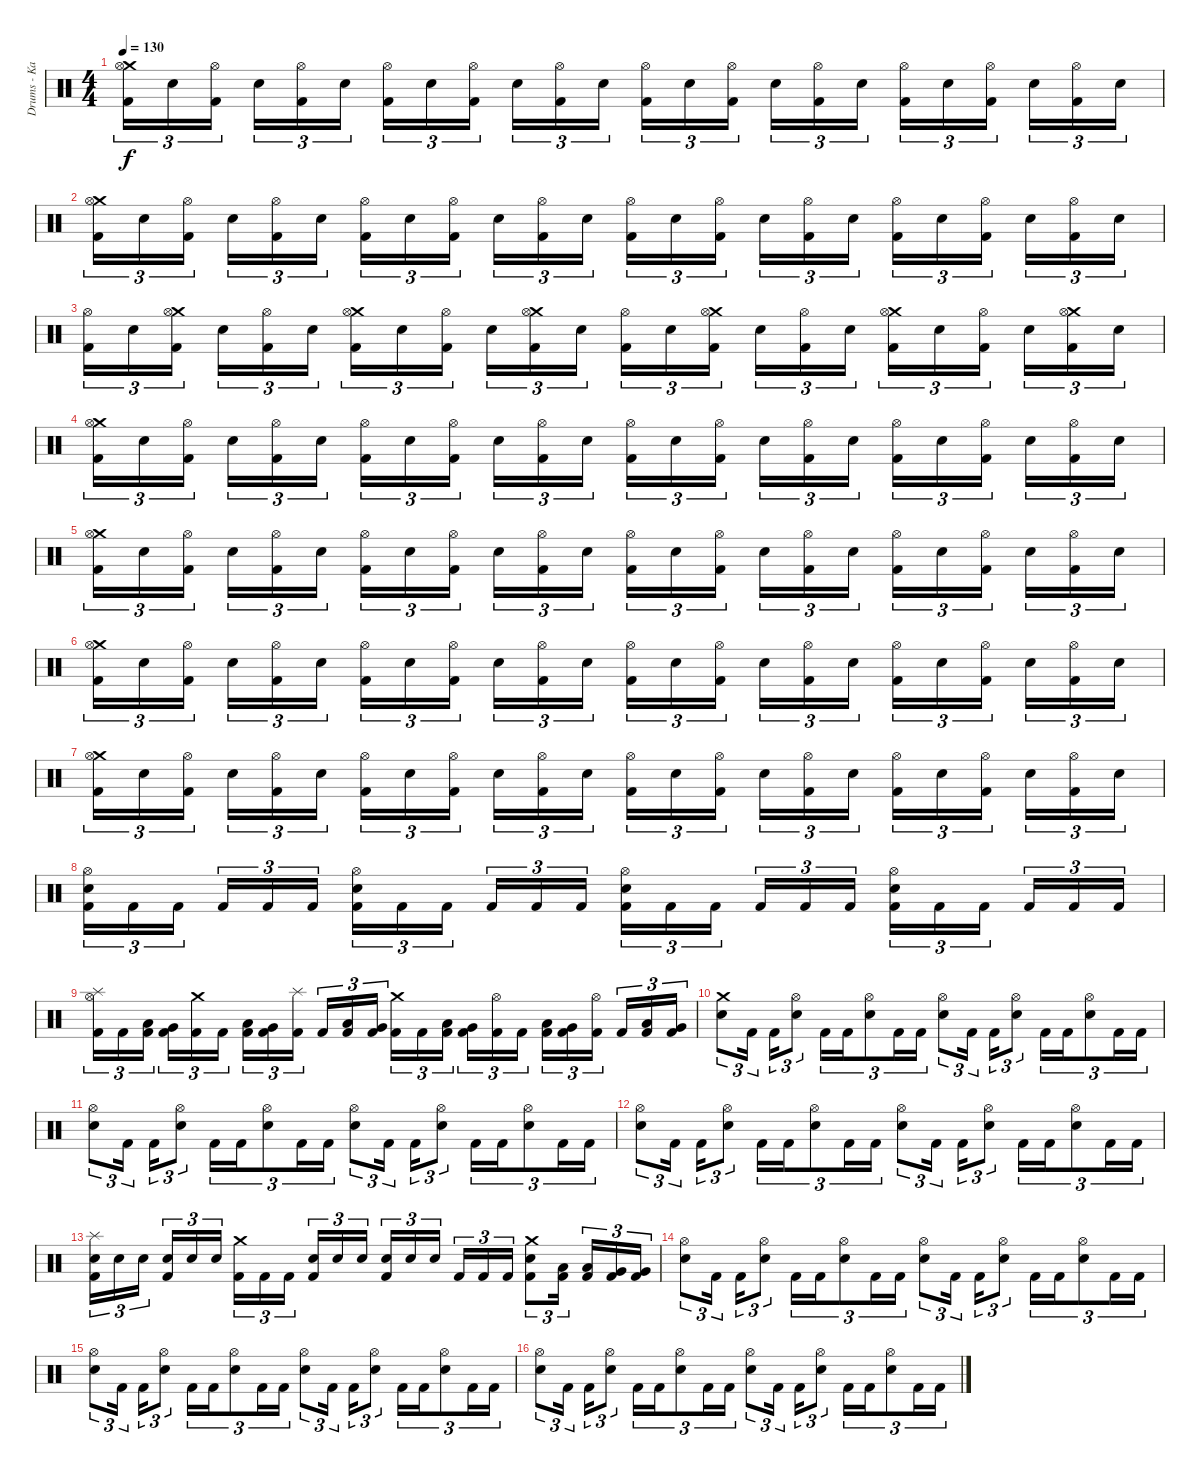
\track ("Drums - Kai Hahto " "Drums - Ka") {instrument percussion}
\staff {score}
\articulation defaults
\ts (4 4)
\tempo 130
\clef neutral
\ks c
("Crash medium (hit)" "Hi-Hat (open)" "Kick (hit) 2").16{tu (3 2) dy f} "Snare (hit) 2".16{tu (3 2)} ("Hi-Hat (open)" "Kick (hit) 2").16{tu (3 2) beam splitsecondary} "Snare (hit) 2".16{tu (3 2)} ("Hi-Hat (open)" "Kick (hit) 2").16{tu (3 2)} "Snare (hit) 2".16{tu (3 2)} ("Hi-Hat (open)" "Kick (hit) 2").16{tu (3 2)} "Snare (hit) 2".16{tu (3 2)} ("Hi-Hat (open)" "Kick (hit) 2").16{tu (3 2) beam splitsecondary} "Snare (hit) 2".16{tu (3 2)} ("Hi-Hat (open)" "Kick (hit) 2").16{tu (3 2)} "Snare (hit) 2".16{tu (3 2)} ("Hi-Hat (open)" "Kick (hit) 2").16{tu (3 2)} "Snare (hit) 2".16{tu (3 2)} ("Hi-Hat (open)" "Kick (hit) 2").16{tu (3 2) beam splitsecondary} "Snare (hit) 2".16{tu (3 2)} ("Hi-Hat (open)" "Kick (hit) 2").16{tu (3 2)} "Snare (hit) 2".16{tu (3 2)} ("Hi-Hat (open)" "Kick (hit) 2").16{tu (3 2)} "Snare (hit) 2".16{tu (3 2)} ("Hi-Hat (open)" "Kick (hit) 2").16{tu (3 2) beam splitsecondary} "Snare (hit) 2".16{tu (3 2)} ("Hi-Hat (open)" "Kick (hit) 2").16{tu (3 2)} "Snare (hit) 2".16{tu (3 2)} |
("Crash medium (hit)" "Hi-Hat (open)" "Kick (hit) 2").16{tu (3 2)} "Snare (hit) 2".16{tu (3 2)} ("Hi-Hat (open)" "Kick (hit) 2").16{tu (3 2) beam splitsecondary} "Snare (hit) 2".16{tu (3 2)} ("Hi-Hat (open)" "Kick (hit) 2").16{tu (3 2)} "Snare (hit) 2".16{tu (3 2)} ("Hi-Hat (open)" "Kick (hit) 2").16{tu (3 2)} "Snare (hit) 2".16{tu (3 2)} ("Hi-Hat (open)" "Kick (hit) 2").16{tu (3 2) beam splitsecondary} "Snare (hit) 2".16{tu (3 2)} ("Hi-Hat (open)" "Kick (hit) 2").16{tu (3 2)} "Snare (hit) 2".16{tu (3 2)} ("Hi-Hat (open)" "Kick (hit) 2").16{tu (3 2)} "Snare (hit) 2".16{tu (3 2)} ("Hi-Hat (open)" "Kick (hit) 2").16{tu (3 2) beam splitsecondary} "Snare (hit) 2".16{tu (3 2)} ("Hi-Hat (open)" "Kick (hit) 2").16{tu (3 2)} "Snare (hit) 2".16{tu (3 2)} ("Hi-Hat (open)" "Kick (hit) 2").16{tu (3 2)} "Snare (hit) 2".16{tu (3 2)} ("Hi-Hat (open)" "Kick (hit) 2").16{tu (3 2) beam splitsecondary} "Snare (hit) 2".16{tu (3 2)} ("Hi-Hat (open)" "Kick (hit) 2").16{tu (3 2)} "Snare (hit) 2".16{tu (3 2)} |
("Hi-Hat (open)" "Kick (hit) 2").16{tu (3 2)} "Snare (hit) 2".16{tu (3 2)} ("Crash medium (hit)" "Hi-Hat (open)" "Kick (hit) 2").16{tu (3 2) beam splitsecondary} "Snare (hit) 2".16{tu (3 2)} ("Hi-Hat (open)" "Kick (hit) 2").16{tu (3 2)} "Snare (hit) 2".16{tu (3 2)} ("Crash medium (hit)" "Hi-Hat (open)" "Kick (hit) 2").16{tu (3 2)} "Snare (hit) 2".16{tu (3 2)} ("Hi-Hat (open)" "Kick (hit) 2").16{tu (3 2) beam splitsecondary} "Snare (hit) 2".16{tu (3 2)} ("Crash medium (hit)" "Hi-Hat (open)" "Kick (hit) 2").16{tu (3 2)} "Snare (hit) 2".16{tu (3 2)} ("Hi-Hat (open)" "Kick (hit) 2").16{tu (3 2)} "Snare (hit) 2".16{tu (3 2)} ("Crash medium (hit)" "Hi-Hat (open)" "Kick (hit) 2").16{tu (3 2) beam splitsecondary} "Snare (hit) 2".16{tu (3 2)} ("Hi-Hat (open)" "Kick (hit) 2").16{tu (3 2)} "Snare (hit) 2".16{tu (3 2)} ("Crash medium (hit)" "Hi-Hat (open)" "Kick (hit) 2").16{tu (3 2)} "Snare (hit) 2".16{tu (3 2)} ("Hi-Hat (open)" "Kick (hit) 2").16{tu (3 2) beam splitsecondary} "Snare (hit) 2".16{tu (3 2)} ("Crash medium (hit)" "Hi-Hat (open)" "Kick (hit) 2").16{tu (3 2)} "Snare (hit) 2".16{tu (3 2)} |
("Crash medium (hit)" "Hi-Hat (open)" "Kick (hit) 2").16{tu (3 2)} "Snare (hit) 2".16{tu (3 2)} ("Hi-Hat (open)" "Kick (hit) 2").16{tu (3 2) beam splitsecondary} "Snare (hit) 2".16{tu (3 2)} ("Hi-Hat (open)" "Kick (hit) 2").16{tu (3 2)} "Snare (hit) 2".16{tu (3 2)} ("Hi-Hat (open)" "Kick (hit) 2").16{tu (3 2)} "Snare (hit) 2".16{tu (3 2)} ("Hi-Hat (open)" "Kick (hit) 2").16{tu (3 2) beam splitsecondary} "Snare (hit) 2".16{tu (3 2)} ("Hi-Hat (open)" "Kick (hit) 2").16{tu (3 2)} "Snare (hit) 2".16{tu (3 2)} ("Hi-Hat (open)" "Kick (hit) 2").16{tu (3 2)} "Snare (hit) 2".16{tu (3 2)} ("Hi-Hat (open)" "Kick (hit) 2").16{tu (3 2) beam splitsecondary} "Snare (hit) 2".16{tu (3 2)} ("Hi-Hat (open)" "Kick (hit) 2").16{tu (3 2)} "Snare (hit) 2".16{tu (3 2)} ("Hi-Hat (open)" "Kick (hit) 2").16{tu (3 2)} "Snare (hit) 2".16{tu (3 2)} ("Hi-Hat (open)" "Kick (hit) 2").16{tu (3 2) beam splitsecondary} "Snare (hit) 2".16{tu (3 2)} ("Hi-Hat (open)" "Kick (hit) 2").16{tu (3 2)} "Snare (hit) 2".16{tu (3 2)} |
("Crash medium (hit)" "Hi-Hat (open)" "Kick (hit) 2").16{tu (3 2)} "Snare (hit) 2".16{tu (3 2)} ("Hi-Hat (open)" "Kick (hit) 2").16{tu (3 2) beam splitsecondary} "Snare (hit) 2".16{tu (3 2)} ("Hi-Hat (open)" "Kick (hit) 2").16{tu (3 2)} "Snare (hit) 2".16{tu (3 2)} ("Hi-Hat (open)" "Kick (hit) 2").16{tu (3 2)} "Snare (hit) 2".16{tu (3 2)} ("Hi-Hat (open)" "Kick (hit) 2").16{tu (3 2) beam splitsecondary} "Snare (hit) 2".16{tu (3 2)} ("Hi-Hat (open)" "Kick (hit) 2").16{tu (3 2)} "Snare (hit) 2".16{tu (3 2)} ("Hi-Hat (open)" "Kick (hit) 2").16{tu (3 2)} "Snare (hit) 2".16{tu (3 2)} ("Hi-Hat (open)" "Kick (hit) 2").16{tu (3 2) beam splitsecondary} "Snare (hit) 2".16{tu (3 2)} ("Hi-Hat (open)" "Kick (hit) 2").16{tu (3 2)} "Snare (hit) 2".16{tu (3 2)} ("Hi-Hat (open)" "Kick (hit) 2").16{tu (3 2)} "Snare (hit) 2".16{tu (3 2)} ("Hi-Hat (open)" "Kick (hit) 2").16{tu (3 2) beam splitsecondary} "Snare (hit) 2".16{tu (3 2)} ("Hi-Hat (open)" "Kick (hit) 2").16{tu (3 2)} "Snare (hit) 2".16{tu (3 2)} |
("Crash medium (hit)" "Hi-Hat (open)" "Kick (hit) 2").16{tu (3 2)} "Snare (hit) 2".16{tu (3 2)} ("Hi-Hat (open)" "Kick (hit) 2").16{tu (3 2) beam splitsecondary} "Snare (hit) 2".16{tu (3 2)} ("Hi-Hat (open)" "Kick (hit) 2").16{tu (3 2)} "Snare (hit) 2".16{tu (3 2)} ("Hi-Hat (open)" "Kick (hit) 2").16{tu (3 2)} "Snare (hit) 2".16{tu (3 2)} ("Hi-Hat (open)" "Kick (hit) 2").16{tu (3 2) beam splitsecondary} "Snare (hit) 2".16{tu (3 2)} ("Hi-Hat (open)" "Kick (hit) 2").16{tu (3 2)} "Snare (hit) 2".16{tu (3 2)} ("Hi-Hat (open)" "Kick (hit) 2").16{tu (3 2)} "Snare (hit) 2".16{tu (3 2)} ("Hi-Hat (open)" "Kick (hit) 2").16{tu (3 2) beam splitsecondary} "Snare (hit) 2".16{tu (3 2)} ("Hi-Hat (open)" "Kick (hit) 2").16{tu (3 2)} "Snare (hit) 2".16{tu (3 2)} ("Hi-Hat (open)" "Kick (hit) 2").16{tu (3 2)} "Snare (hit) 2".16{tu (3 2)} ("Hi-Hat (open)" "Kick (hit) 2").16{tu (3 2) beam splitsecondary} "Snare (hit) 2".16{tu (3 2)} ("Hi-Hat (open)" "Kick (hit) 2").16{tu (3 2)} "Snare (hit) 2".16{tu (3 2)} |
("Crash medium (hit)" "Hi-Hat (open)" "Kick (hit) 2").16{tu (3 2)} "Snare (hit) 2".16{tu (3 2)} ("Hi-Hat (open)" "Kick (hit) 2").16{tu (3 2) beam splitsecondary} "Snare (hit) 2".16{tu (3 2)} ("Hi-Hat (open)" "Kick (hit) 2").16{tu (3 2)} "Snare (hit) 2".16{tu (3 2)} ("Hi-Hat (open)" "Kick (hit) 2").16{tu (3 2)} "Snare (hit) 2".16{tu (3 2)} ("Hi-Hat (open)" "Kick (hit) 2").16{tu (3 2) beam splitsecondary} "Snare (hit) 2".16{tu (3 2)} ("Hi-Hat (open)" "Kick (hit) 2").16{tu (3 2)} "Snare (hit) 2".16{tu (3 2)} ("Hi-Hat (open)" "Kick (hit) 2").16{tu (3 2)} "Snare (hit) 2".16{tu (3 2)} ("Hi-Hat (open)" "Kick (hit) 2").16{tu (3 2) beam splitsecondary} "Snare (hit) 2".16{tu (3 2)} ("Hi-Hat (open)" "Kick (hit) 2").16{tu (3 2)} "Snare (hit) 2".16{tu (3 2)} ("Hi-Hat (open)" "Kick (hit) 2").16{tu (3 2)} "Snare (hit) 2".16{tu (3 2)} ("Hi-Hat (open)" "Kick (hit) 2").16{tu (3 2) beam splitsecondary} "Snare (hit) 2".16{tu (3 2)} ("Hi-Hat (open)" "Kick (hit) 2").16{tu (3 2)} "Snare (hit) 2".16{tu (3 2)} |
("Hi-Hat (open)" "Snare (hit) 2" "Kick (hit) 2").16{tu (3 2)} "Kick (hit) 2".16{tu (3 2)} "Kick (hit) 2".16{tu (3 2) beam splitsecondary} "Kick (hit) 2".16{tu (3 2)} "Kick (hit) 2".16{tu (3 2)} "Kick (hit) 2".16{tu (3 2)} ("Hi-Hat (open)" "Snare (hit) 2" "Kick (hit) 2").16{tu (3 2)} "Kick (hit) 2".16{tu (3 2)} "Kick (hit) 2".16{tu (3 2) beam splitsecondary} "Kick (hit) 2".16{tu (3 2)} "Kick (hit) 2".16{tu (3 2)} "Kick (hit) 2".16{tu (3 2)} ("Hi-Hat (open)" "Snare (hit) 2" "Kick (hit) 2").16{tu (3 2)} "Kick (hit) 2".16{tu (3 2)} "Kick (hit) 2".16{tu (3 2) beam splitsecondary} "Kick (hit) 2".16{tu (3 2)} "Kick (hit) 2".16{tu (3 2)} "Kick (hit) 2".16{tu (3 2)} ("Hi-Hat (open)" "Snare (hit) 2" "Kick (hit) 2").16{tu (3 2)} "Kick (hit) 2".16{tu (3 2)} "Kick (hit) 2".16{tu (3 2) beam splitsecondary} "Kick (hit) 2".16{tu (3 2)} "Kick (hit) 2".16{tu (3 2)} "Kick (hit) 2".16{tu (3 2)} |
("Splash (hit)" "Hi-Hat (open)" "Kick (hit) 2").16{tu (3 2)} "Kick (hit) 2".16{tu (3 2)} ("Low Tom (hit)" "Kick (hit) 2").16{tu (3 2) beam splitsecondary} ("Very Low Tom (hit)" "Kick (hit) 2").16{tu (3 2)} ("Crash medium (hit)" "Kick (hit) 2").16{tu (3 2)} "Kick (hit) 2".16{tu (3 2)} ("Low Tom (hit)" "Kick (hit) 2").16{tu (3 2)} ("Very Low Tom (hit)" "Kick (hit) 2").16{tu (3 2)} ("Splash (hit)" "Kick (hit) 2").16{tu (3 2) beam splitsecondary} "Kick (hit) 2".16{tu (3 2)} ("Low Tom (hit)" "Kick (hit) 2").16{tu (3 2)} ("Very Low Tom (hit)" "Kick (hit) 2").16{tu (3 2)} ("Crash medium (hit)" "Kick (hit) 2").16{tu (3 2)} "Kick (hit) 2".16{tu (3 2)} ("Low Tom (hit)" "Kick (hit) 2").16{tu (3 2) beam splitsecondary} ("Very Low Tom (hit)" "Kick (hit) 2").16{tu (3 2)} ("Hi-Hat (open)" "Kick (hit) 2").16{tu (3 2)} "Kick (hit) 2".16{tu (3 2)} ("Low Tom (hit)" "Kick (hit) 2").16{tu (3 2)} ("Very Low Tom (hit)" "Kick (hit) 2").16{tu (3 2)} ("Hi-Hat (open)" "Kick (hit) 2").16{tu (3 2) beam splitsecondary} "Kick (hit) 2".16{tu (3 2)} ("Low Tom (hit)" "Kick (hit) 2").16{tu (3 2)} ("Very Low Tom (hit)" "Kick (hit) 2").16{tu (3 2)} |
("Crash medium (hit)" "Snare (hit) 2").8{tu (3 2)} "Kick (hit) 2".16{tu (3 2) beam splitsecondary} "Kick (hit) 2".16{tu (3 2)} ("Hi-Hat (open)" "Snare (hit) 2").8{tu (3 2)} "Kick (hit) 2".16{tu (3 2)} "Kick (hit) 2".16{tu (3 2)} ("Hi-Hat (open)" "Snare (hit) 2").8{tu (3 2)} "Kick (hit) 2".16{tu (3 2)} "Kick (hit) 2".16{tu (3 2)} ("Hi-Hat (open)" "Snare (hit) 2").8{tu (3 2)} "Kick (hit) 2".16{tu (3 2) beam splitsecondary} "Kick (hit) 2".16{tu (3 2)} ("Hi-Hat (open)" "Snare (hit) 2").8{tu (3 2)} "Kick (hit) 2".16{tu (3 2)} "Kick (hit) 2".16{tu (3 2)} ("Hi-Hat (open)" "Snare (hit) 2").8{tu (3 2)} "Kick (hit) 2".16{tu (3 2)} "Kick (hit) 2".16{tu (3 2)} |
("Hi-Hat (open)" "Snare (hit) 2").8{tu (3 2)} "Kick (hit) 2".16{tu (3 2) beam splitsecondary} "Kick (hit) 2".16{tu (3 2)} ("Hi-Hat (open)" "Snare (hit) 2").8{tu (3 2)} "Kick (hit) 2".16{tu (3 2)} "Kick (hit) 2".16{tu (3 2)} ("Hi-Hat (open)" "Snare (hit) 2").8{tu (3 2)} "Kick (hit) 2".16{tu (3 2)} "Kick (hit) 2".16{tu (3 2)} ("Hi-Hat (open)" "Snare (hit) 2").8{tu (3 2)} "Kick (hit) 2".16{tu (3 2) beam splitsecondary} "Kick (hit) 2".16{tu (3 2)} ("Hi-Hat (open)" "Snare (hit) 2").8{tu (3 2)} "Kick (hit) 2".16{tu (3 2)} "Kick (hit) 2".16{tu (3 2)} ("Hi-Hat (open)" "Snare (hit) 2").8{tu (3 2)} "Kick (hit) 2".16{tu (3 2)} "Kick (hit) 2".16{tu (3 2)} |
("Hi-Hat (open)" "Snare (hit) 2").8{tu (3 2)} "Kick (hit) 2".16{tu (3 2) beam splitsecondary} "Kick (hit) 2".16{tu (3 2)} ("Hi-Hat (open)" "Snare (hit) 2").8{tu (3 2)} "Kick (hit) 2".16{tu (3 2)} "Kick (hit) 2".16{tu (3 2)} ("Hi-Hat (open)" "Snare (hit) 2").8{tu (3 2)} "Kick (hit) 2".16{tu (3 2)} "Kick (hit) 2".16{tu (3 2)} ("Hi-Hat (open)" "Snare (hit) 2").8{tu (3 2)} "Kick (hit) 2".16{tu (3 2) beam splitsecondary} "Kick (hit) 2".16{tu (3 2)} ("Hi-Hat (open)" "Snare (hit) 2").8{tu (3 2)} "Kick (hit) 2".16{tu (3 2)} "Kick (hit) 2".16{tu (3 2)} ("Hi-Hat (open)" "Snare (hit) 2").8{tu (3 2)} "Kick (hit) 2".16{tu (3 2)} "Kick (hit) 2".16{tu (3 2)} |
("Splash (hit)" "Snare (hit) 2" "Kick (hit) 2").16{tu (3 2)} "Snare (hit) 2".16{tu (3 2)} "Snare (hit) 2".16{tu (3 2) beam splitsecondary} ("Snare (hit) 2" "Kick (hit) 2").16{tu (3 2)} "Snare (hit) 2".16{tu (3 2)} "Snare (hit) 2".16{tu (3 2)} ("Crash medium (hit)" "Kick (hit) 2").16{tu (3 2)} "Kick (hit) 2".16{tu (3 2)} "Kick (hit) 2".16{tu (3 2) beam splitsecondary} ("Snare (hit) 2" "Kick (hit) 2").16{tu (3 2)} "Snare (hit) 2".16{tu (3 2)} "Snare (hit) 2".16{tu (3 2)} ("Snare (hit) 2" "Kick (hit) 2").16{tu (3 2)} "Snare (hit) 2".16{tu (3 2)} "Snare (hit) 2".16{tu (3 2) beam splitsecondary} "Kick (hit) 2".16{tu (3 2)} "Kick (hit) 2".16{tu (3 2)} "Kick (hit) 2".16{tu (3 2)} ("Crash medium (hit)" "Snare (hit) 2" "Kick (hit) 2").8{tu (3 2)} ("Low Tom (hit)" "Kick (hit) 2").16{tu (3 2) beam splitsecondary} ("Low Tom (hit)" "Kick (hit) 2").16{tu (3 2)} ("Very Low Tom (hit)" "Kick (hit) 2").16{tu (3 2)} ("Very Low Tom (hit)" "Kick (hit) 2").16{tu (3 2)} |
("Hi-Hat (open)" "Snare (hit) 2").8{tu (3 2)} "Kick (hit) 2".16{tu (3 2) beam splitsecondary} "Kick (hit) 2".16{tu (3 2)} ("Hi-Hat (open)" "Snare (hit) 2").8{tu (3 2)} "Kick (hit) 2".16{tu (3 2)} "Kick (hit) 2".16{tu (3 2)} ("Hi-Hat (open)" "Snare (hit) 2").8{tu (3 2)} "Kick (hit) 2".16{tu (3 2)} "Kick (hit) 2".16{tu (3 2)} ("Hi-Hat (open)" "Snare (hit) 2").8{tu (3 2)} "Kick (hit) 2".16{tu (3 2) beam splitsecondary} "Kick (hit) 2".16{tu (3 2)} ("Hi-Hat (open)" "Snare (hit) 2").8{tu (3 2)} "Kick (hit) 2".16{tu (3 2)} "Kick (hit) 2".16{tu (3 2)} ("Hi-Hat (open)" "Snare (hit) 2").8{tu (3 2)} "Kick (hit) 2".16{tu (3 2)} "Kick (hit) 2".16{tu (3 2)} |
("Hi-Hat (open)" "Snare (hit) 2").8{tu (3 2)} "Kick (hit) 2".16{tu (3 2) beam splitsecondary} "Kick (hit) 2".16{tu (3 2)} ("Hi-Hat (open)" "Snare (hit) 2").8{tu (3 2)} "Kick (hit) 2".16{tu (3 2)} "Kick (hit) 2".16{tu (3 2)} ("Hi-Hat (open)" "Snare (hit) 2").8{tu (3 2)} "Kick (hit) 2".16{tu (3 2)} "Kick (hit) 2".16{tu (3 2)} ("Hi-Hat (open)" "Snare (hit) 2").8{tu (3 2)} "Kick (hit) 2".16{tu (3 2) beam splitsecondary} "Kick (hit) 2".16{tu (3 2)} ("Hi-Hat (open)" "Snare (hit) 2").8{tu (3 2)} "Kick (hit) 2".16{tu (3 2)} "Kick (hit) 2".16{tu (3 2)} ("Hi-Hat (open)" "Snare (hit) 2").8{tu (3 2)} "Kick (hit) 2".16{tu (3 2)} "Kick (hit) 2".16{tu (3 2)} |
("Hi-Hat (open)" "Snare (hit) 2").8{tu (3 2)} "Kick (hit) 2".16{tu (3 2) beam splitsecondary} "Kick (hit) 2".16{tu (3 2)} ("Hi-Hat (open)" "Snare (hit) 2").8{tu (3 2)} "Kick (hit) 2".16{tu (3 2)} "Kick (hit) 2".16{tu (3 2)} ("Hi-Hat (open)" "Snare (hit) 2").8{tu (3 2)} "Kick (hit) 2".16{tu (3 2)} "Kick (hit) 2".16{tu (3 2)} ("Hi-Hat (open)" "Snare (hit) 2").8{tu (3 2)} "Kick (hit) 2".16{tu (3 2) beam splitsecondary} "Kick (hit) 2".16{tu (3 2)} ("Hi-Hat (open)" "Snare (hit) 2").8{tu (3 2)} "Kick (hit) 2".16{tu (3 2)} "Kick (hit) 2".16{tu (3 2)} ("Hi-Hat (open)" "Snare (hit) 2").8{tu (3 2)} "Kick (hit) 2".16{tu (3 2)} "Kick (hit) 2".16{tu (3 2)}
